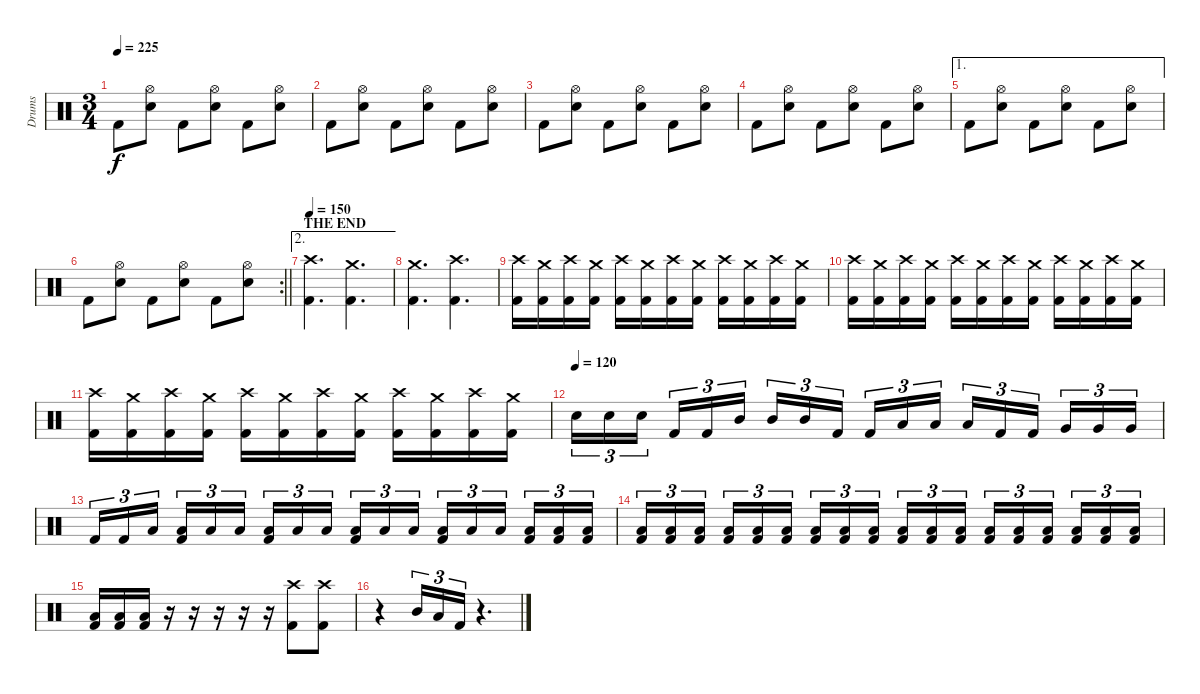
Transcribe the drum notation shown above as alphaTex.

\track ("Drums" "Drums") {instrument percussion}
\staff {score}
\articulation defaults
\ts (3 4)
\tempo 225
\clef neutral
\ks c "Kick (hit) 2".8{dy f}
("Hi-Hat (open)" "Electric Snare (hit)").8 "Kick (hit) 2".8 ("Hi-Hat (open)" "Electric Snare (hit)").8 "Kick (hit) 2".8 ("Hi-Hat (open)" "Electric Snare (hit)").8 |
"Kick (hit) 2".8 ("Hi-Hat (open)" "Electric Snare (hit)").8 "Kick (hit) 2".8 ("Hi-Hat (open)" "Electric Snare (hit)").8 "Kick (hit) 2".8 ("Hi-Hat (open)" "Electric Snare (hit)").8 |
"Kick (hit) 2".8 ("Hi-Hat (open)" "Electric Snare (hit)").8 "Kick (hit) 2".8 ("Hi-Hat (open)" "Electric Snare (hit)").8 "Kick (hit) 2".8 ("Hi-Hat (open)" "Electric Snare (hit)").8 |
"Kick (hit) 2".8 ("Hi-Hat (open)" "Electric Snare (hit)").8 "Kick (hit) 2".8 ("Hi-Hat (open)" "Electric Snare (hit)").8 "Kick (hit) 2".8 ("Hi-Hat (open)" "Electric Snare (hit)").8 |
\ae 1 "Kick (hit) 2".8
("Hi-Hat (open)" "Electric Snare (hit)").8 "Kick (hit) 2".8 ("Hi-Hat (open)" "Electric Snare (hit)").8 "Kick (hit) 2".8 ("Hi-Hat (open)" "Electric Snare (hit)").8 |
\rc 2
\barLineRight lightlight "Kick (hit) 2".8
("Hi-Hat (open)" "Electric Snare (hit)").8 "Kick (hit) 2".8 ("Hi-Hat (open)" "Electric Snare (hit)").8 "Kick (hit) 2".8 ("Hi-Hat (open)" "Electric Snare (hit)").8 |
\ae 2
\section ("" "THE END")
\tempo 150
("Crash high (hit)" "Kick (hit) 2").4{d} ("Crash medium (hit)" "Kick (hit) 2").4{d} |
("Crash medium (hit)" "Kick (hit) 2").4{d} ("Crash high (hit)" "Kick (hit) 2").4{d} |
("Crash high (hit)" "Kick (hit) 2").16 ("Crash medium (hit)" "Kick (hit) 2").16 ("Crash high (hit)" "Kick (hit) 2").16 ("Crash medium (hit)" "Kick (hit) 2").16 ("Crash high (hit)" "Kick (hit) 2").16 ("Crash medium (hit)" "Kick (hit) 2").16 ("Crash high (hit)" "Kick (hit) 2").16 ("Crash medium (hit)" "Kick (hit) 2").16 ("Crash high (hit)" "Kick (hit) 2").16 ("Crash medium (hit)" "Kick (hit) 2").16 ("Crash high (hit)" "Kick (hit) 2").16 ("Crash medium (hit)" "Kick (hit) 2").16 |
("Crash high (hit)" "Kick (hit) 2").16 ("Crash medium (hit)" "Kick (hit) 2").16 ("Crash high (hit)" "Kick (hit) 2").16 ("Crash medium (hit)" "Kick (hit) 2").16 ("Crash high (hit)" "Kick (hit) 2").16 ("Crash medium (hit)" "Kick (hit) 2").16 ("Crash high (hit)" "Kick (hit) 2").16 ("Crash medium (hit)" "Kick (hit) 2").16 ("Crash high (hit)" "Kick (hit) 2").16 ("Crash medium (hit)" "Kick (hit) 2").16 ("Crash high (hit)" "Kick (hit) 2").16 ("Crash medium (hit)" "Kick (hit) 2").16 |
("Crash high (hit)" "Kick (hit) 2").16 ("Crash medium (hit)" "Kick (hit) 2").16 ("Crash high (hit)" "Kick (hit) 2").16 ("Crash medium (hit)" "Kick (hit) 2").16 ("Crash high (hit)" "Kick (hit) 2").16 ("Crash medium (hit)" "Kick (hit) 2").16 ("Crash high (hit)" "Kick (hit) 2").16 ("Crash medium (hit)" "Kick (hit) 2").16 ("Crash high (hit)" "Kick (hit) 2").16 ("Crash medium (hit)" "Kick (hit) 2").16 ("Crash high (hit)" "Kick (hit) 2").16 ("Crash medium (hit)" "Kick (hit) 2").16 |
\tempo (120)
"Electric Snare (hit)".16{tu (3 2)} "Electric Snare (hit)".16{tu (3 2)} "Electric Snare (hit)".16{tu (3 2) beam splitsecondary} "Kick (hit) 2".16{tu (3 2)} "Kick (hit) 2".16{tu (3 2)} "Mid Tom (hit)".16{tu (3 2)} "Mid Tom (hit)".16{tu (3 2)} "Mid Tom (hit)".16{tu (3 2)} "Kick (hit) 2".16{tu (3 2) beam splitsecondary} "Kick (hit) 2".16{tu (3 2)} "Low Tom (hit)".16{tu (3 2)} "Low Tom (hit)".16{tu (3 2)} "Low Tom (hit)".16{tu (3 2)} "Kick (hit) 2".16{tu (3 2)} "Kick (hit) 2".16{tu (3 2) beam splitsecondary} "Very Low Tom (hit)".16{tu (3 2)} "Very Low Tom (hit)".16{tu (3 2)} "Very Low Tom (hit)".16{tu (3 2)} |
"Kick (hit) 2".16{tu (3 2)} "Kick (hit) 2".16{tu (3 2)} "Low Floor Tom (hit)".16{tu (3 2) beam splitsecondary} ("Low Floor Tom (hit)" "Kick (hit) 2").16{tu (3 2)} "Low Floor Tom (hit)".16{tu (3 2)} "Low Floor Tom (hit)".16{tu (3 2)} ("Low Floor Tom (hit)" "Kick (hit) 2").16{tu (3 2)} "Low Floor Tom (hit)".16{tu (3 2)} "Low Floor Tom (hit)".16{tu (3 2) beam splitsecondary} ("Low Floor Tom (hit)" "Kick (hit) 2").16{tu (3 2)} "Low Floor Tom (hit)".16{tu (3 2)} "Low Floor Tom (hit)".16{tu (3 2)} ("Low Floor Tom (hit)" "Kick (hit) 2").16{tu (3 2)} "Low Floor Tom (hit)".16{tu (3 2)} "Low Floor Tom (hit)".16{tu (3 2) beam splitsecondary} ("Low Floor Tom (hit)" "Kick (hit) 2").16{tu (3 2)} ("Low Floor Tom (hit)" "Kick (hit) 2").16{tu (3 2)} ("Low Floor Tom (hit)" "Kick (hit) 2").16{tu (3 2)} |
("Low Floor Tom (hit)" "Kick (hit) 2").16{tu (3 2)} ("Low Floor Tom (hit)" "Kick (hit) 2").16{tu (3 2)} ("Low Floor Tom (hit)" "Kick (hit) 2").16{tu (3 2) beam splitsecondary} ("Low Floor Tom (hit)" "Kick (hit) 2").16{tu (3 2)} ("Low Floor Tom (hit)" "Kick (hit) 2").16{tu (3 2)} ("Low Floor Tom (hit)" "Kick (hit) 2").16{tu (3 2)} ("Low Floor Tom (hit)" "Kick (hit) 2").16{tu (3 2)} ("Low Floor Tom (hit)" "Kick (hit) 2").16{tu (3 2)} ("Low Floor Tom (hit)" "Kick (hit) 2").16{tu (3 2) beam splitsecondary} ("Low Floor Tom (hit)" "Kick (hit) 2").16{tu (3 2)} ("Low Floor Tom (hit)" "Kick (hit) 2").16{tu (3 2)} ("Low Floor Tom (hit)" "Kick (hit) 2").16{tu (3 2)} ("Low Floor Tom (hit)" "Kick (hit) 2").16{tu (3 2)} ("Low Floor Tom (hit)" "Kick (hit) 2").16{tu (3 2)} ("Low Floor Tom (hit)" "Kick (hit) 2").16{tu (3 2) beam splitsecondary} ("Low Floor Tom (hit)" "Kick (hit) 2").16{tu (3 2)} ("Low Floor Tom (hit)" "Kick (hit) 2").16{tu (3 2)} ("Low Floor Tom (hit)" "Kick (hit) 2").16{tu (3 2)} |
("Low Floor Tom (hit)" "Kick (hit) 2").16 ("Low Floor Tom (hit)" "Kick (hit) 2").16 ("Low Floor Tom (hit)" "Kick (hit) 2").16 r.16 r.16 r.16 r.16 r.16 ("Crash high (hit)" "Kick (hit) 2").8 ("Crash high (hit)" "Kick (hit) 2").8 |
r.4 "Mid Tom (hit)".16{tu (3 2)} "Low Tom (hit)".16{tu (3 2)} "Kick (hit) 2".16{tu (3 2)} r.4{d}
